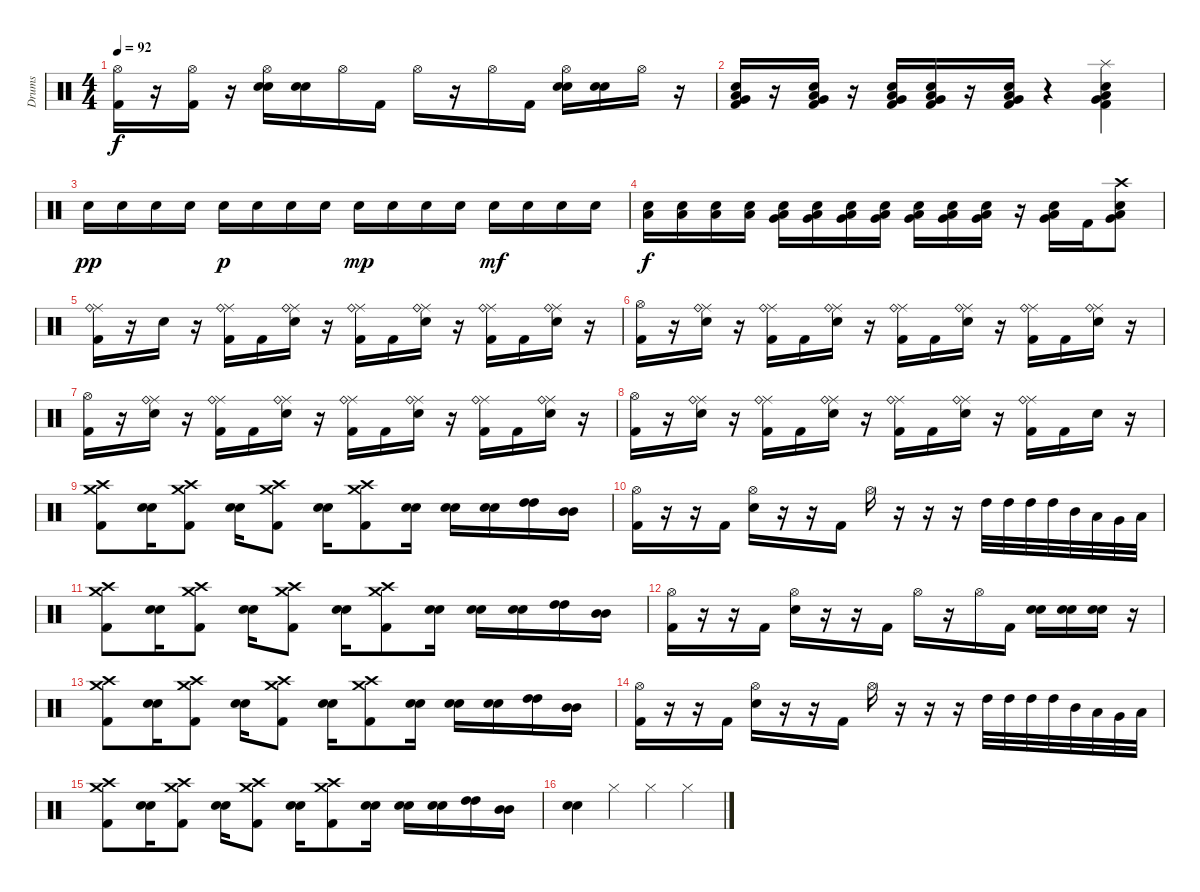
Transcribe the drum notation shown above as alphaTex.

\track ("Drums" "Drums") {instrument percussion}
\staff {score}
\articulation defaults
\ts (4 4)
\tempo 92
\clef neutral
\ks c
("Hi-Hat (open)" "Kick (hit) 2").16{dy f} r.16 ("Hi-Hat (open)" "Kick (hit) 2").16 r.16 ("Hi-Hat (open)" "Snare (hit) 2" "Electric Snare (hit)").16 ("Snare (hit) 2" "Electric Snare (hit)").16 "Hi-Hat (open)".16 "Kick (hit) 2".16 "Hi-Hat (open)".16 r.16 "Hi-Hat (open)".16 "Kick (hit) 2".16 ("Hi-Hat (open)" "Snare (hit) 2" "Electric Snare (hit)").16 ("Snare (hit) 2" "Electric Snare (hit)").16 "Hi-Hat (open)".16 r.16 |
("Very Low Tom (hit)" "Snare (hit) 2" "Low Tom (hit)" "Kick (hit) 2").16 r.16 ("Very Low Tom (hit)" "Snare (hit) 2" "Low Tom (hit)" "Kick (hit) 2").16 r.16 ("Very Low Tom (hit)" "Snare (hit) 2" "Low Tom (hit)" "Kick (hit) 2").16 ("Very Low Tom (hit)" "Snare (hit) 2" "Low Tom (hit)" "Kick (hit) 2").16 r.16 ("Very Low Tom (hit)" "Snare (hit) 2" "Low Tom (hit)" "Kick (hit) 2").16 r.4 ("Splash (hit)" "Very Low Tom (hit)" "Snare (hit) 2" "Low Tom (hit)" "Kick (hit) 2").4 |
"Snare (hit) 2".16{dy pp} "Snare (hit) 2".16 "Snare (hit) 2".16 "Snare (hit) 2".16 "Snare (hit) 2".16{dy p} "Snare (hit) 2".16 "Snare (hit) 2".16 "Snare (hit) 2".16 "Snare (hit) 2".16{dy mp} "Snare (hit) 2".16 "Snare (hit) 2".16 "Snare (hit) 2".16 "Snare (hit) 2".16{dy mf} "Snare (hit) 2".16 "Snare (hit) 2".16 "Snare (hit) 2".16 |
("Snare (hit) 2" "Low Tom (hit)").16{dy f} ("Snare (hit) 2" "Low Tom (hit)").16 ("Snare (hit) 2" "Low Tom (hit)").16 ("Snare (hit) 2" "Low Tom (hit)").16 ("Snare (hit) 2" "Very Low Tom (hit)" "Low Tom (hit)").16 ("Snare (hit) 2" "Very Low Tom (hit)" "Low Tom (hit)").16 ("Snare (hit) 2" "Very Low Tom (hit)" "Low Tom (hit)").16 ("Snare (hit) 2" "Very Low Tom (hit)" "Low Tom (hit)").16 ("Snare (hit) 2" "Very Low Tom (hit)" "Low Tom (hit)").16 ("Snare (hit) 2" "Very Low Tom (hit)" "Low Tom (hit)").16 ("Snare (hit) 2" "Very Low Tom (hit)" "Low Tom (hit)").16 r.16 ("Snare (hit) 2" "Very Low Tom (hit)" "Low Tom (hit)").16 "Kick (hit) 2".16 ("Crash high (hit)" "Snare (hit) 2" "Very Low Tom (hit)" "Low Tom (hit)").8 |
("Ride (middle)" "Ride (bell)" "Kick (hit) 2").16 r.16 "Electric Snare (hit)".16 r.16 ("Ride (middle)" "Ride (bell)" "Kick (hit) 2").16 "Kick (hit) 2".16 ("Ride (middle)" "Ride (bell)" "Electric Snare (hit)").16 r.16 ("Ride (middle)" "Ride (bell)" "Kick (hit) 2").16 "Kick (hit) 2".16 ("Ride (middle)" "Ride (bell)" "Electric Snare (hit)").16 r.16 ("Ride (middle)" "Ride (bell)" "Kick (hit) 2").16 "Kick (hit) 2".16 ("Ride (middle)" "Ride (bell)" "Electric Snare (hit)").16 r.16 |
("Hi-Hat (open)" "Kick (hit) 2").16 r.16 ("Ride (middle)" "Ride (bell)" "Electric Snare (hit)").16 r.16 ("Ride (middle)" "Ride (bell)" "Kick (hit) 2").16 "Kick (hit) 2".16 ("Ride (middle)" "Ride (bell)" "Electric Snare (hit)").16 r.16 ("Ride (middle)" "Ride (bell)" "Kick (hit) 2").16 "Kick (hit) 2".16 ("Ride (middle)" "Ride (bell)" "Electric Snare (hit)").16 r.16 ("Ride (middle)" "Ride (bell)" "Kick (hit) 2").16 "Kick (hit) 2".16 ("Ride (middle)" "Ride (bell)" "Electric Snare (hit)").16 r.16 |
("Hi-Hat (open)" "Kick (hit) 2").16 r.16 ("Ride (middle)" "Ride (bell)" "Electric Snare (hit)").16 r.16 ("Ride (middle)" "Ride (bell)" "Kick (hit) 2").16 "Kick (hit) 2".16 ("Ride (middle)" "Ride (bell)" "Electric Snare (hit)").16 r.16 ("Ride (middle)" "Ride (bell)" "Kick (hit) 2").16 "Kick (hit) 2".16 ("Ride (middle)" "Ride (bell)" "Electric Snare (hit)").16 r.16 ("Ride (middle)" "Ride (bell)" "Kick (hit) 2").16 "Kick (hit) 2".16 ("Ride (middle)" "Ride (bell)" "Electric Snare (hit)").16 r.16 |
("Hi-Hat (open)" "Kick (hit) 2").16 r.16 ("Ride (middle)" "Ride (bell)" "Electric Snare (hit)").16 r.16 ("Ride (middle)" "Ride (bell)" "Kick (hit) 2").16 "Kick (hit) 2".16 ("Ride (middle)" "Ride (bell)" "Electric Snare (hit)").16 r.16 ("Ride (middle)" "Ride (bell)" "Kick (hit) 2").16 "Kick (hit) 2".16 ("Ride (middle)" "Ride (bell)" "Electric Snare (hit)").16 r.16 ("Ride (middle)" "Ride (bell)" "Kick (hit) 2").16 "Kick (hit) 2".16 "Electric Snare (hit)".16 r.16 |
("Crash high (hit)" "Crash medium (hit)" "Kick (hit) 2").8 ("Snare (hit) 2" "Electric Snare (hit)").16 ("Crash medium (hit)" "Crash high (hit)" "Kick (hit) 2").8 ("Snare (hit) 2" "Electric Snare (hit)").16 ("Crash high (hit)" "Crash medium (hit)" "Kick (hit) 2").8 ("Snare (hit) 2" "Electric Snare (hit)").16 ("Crash medium (hit)" "Crash high (hit)" "Kick (hit) 2").8 ("Snare (hit) 2" "Electric Snare (hit)").16 ("Snare (hit) 2" "Electric Snare (hit)").16 ("Snare (hit) 2" "Electric Snare (hit)").16 ("High Tom (hit)" "High Tom (hit)").16 ("Mid Tom (hit)" "Mid Tom (hit)").16 |
("Hi-Hat (open)" "Kick (hit) 2").16 r.16 r.16 "Kick (hit) 2".16 ("Hi-Hat (open)" "Electric Snare (hit)").16 r.16 r.16 "Kick (hit) 2".16 "Hi-Hat (open)".16 r.16 r.16 r.16 "High Tom (hit)".32 "High Tom (hit)".32 "High Tom (hit)".32 "High Tom (hit)".32 "Mid Tom (hit)".32 "Low Tom (hit)".32 "Very Low Tom (hit)".32 "Low Floor Tom (hit)".32 |
("Crash high (hit)" "Crash medium (hit)" "Kick (hit) 2").8 ("Snare (hit) 2" "Electric Snare (hit)").16 ("Crash medium (hit)" "Crash high (hit)" "Kick (hit) 2").8 ("Snare (hit) 2" "Electric Snare (hit)").16 ("Crash high (hit)" "Crash medium (hit)" "Kick (hit) 2").8 ("Snare (hit) 2" "Electric Snare (hit)").16 ("Crash medium (hit)" "Crash high (hit)" "Kick (hit) 2").8 ("Snare (hit) 2" "Electric Snare (hit)").16 ("Snare (hit) 2" "Electric Snare (hit)").16 ("Snare (hit) 2" "Electric Snare (hit)").16 ("High Tom (hit)" "High Tom (hit)").16 ("Mid Tom (hit)" "Mid Tom (hit)").16 |
("Hi-Hat (open)" "Kick (hit) 2").16 r.16 r.16 "Kick (hit) 2".16 ("Hi-Hat (open)" "Electric Snare (hit)").16 r.16 r.16 "Kick (hit) 2".16 "Hi-Hat (open)".16 r.16 "Hi-Hat (open)".16 "Kick (hit) 2".16 ("Electric Snare (hit)" "Snare (hit) 2").16 ("Electric Snare (hit)" "Snare (hit) 2").16 ("Electric Snare (hit)" "Snare (hit) 2").16 r.16 |
("Crash high (hit)" "Crash medium (hit)" "Kick (hit) 2").8 ("Snare (hit) 2" "Electric Snare (hit)").16 ("Crash medium (hit)" "Crash high (hit)" "Kick (hit) 2").8 ("Snare (hit) 2" "Electric Snare (hit)").16 ("Crash high (hit)" "Crash medium (hit)" "Kick (hit) 2").8 ("Snare (hit) 2" "Electric Snare (hit)").16 ("Crash medium (hit)" "Crash high (hit)" "Kick (hit) 2").8 ("Snare (hit) 2" "Electric Snare (hit)").16 ("Snare (hit) 2" "Electric Snare (hit)").16 ("Snare (hit) 2" "Electric Snare (hit)").16 ("High Tom (hit)" "High Tom (hit)").16 ("Mid Tom (hit)" "Mid Tom (hit)").16 |
("Hi-Hat (open)" "Kick (hit) 2").16 r.16 r.16 "Kick (hit) 2".16 ("Hi-Hat (open)" "Electric Snare (hit)").16 r.16 r.16 "Kick (hit) 2".16 "Hi-Hat (open)".16 r.16 r.16 r.16 "High Tom (hit)".32 "High Tom (hit)".32 "High Tom (hit)".32 "High Tom (hit)".32 "Mid Tom (hit)".32 "Low Tom (hit)".32 "Very Low Tom (hit)".32 "Low Floor Tom (hit)".32 |
("Crash high (hit)" "Crash medium (hit)" "Kick (hit) 2").8 ("Snare (hit) 2" "Electric Snare (hit)").16 ("Crash medium (hit)" "Crash high (hit)" "Kick (hit) 2").8 ("Snare (hit) 2" "Electric Snare (hit)").16 ("Crash high (hit)" "Crash medium (hit)" "Kick (hit) 2").8 ("Snare (hit) 2" "Electric Snare (hit)").16 ("Crash medium (hit)" "Crash high (hit)" "Kick (hit) 2").8 ("Snare (hit) 2" "Electric Snare (hit)").16 ("Snare (hit) 2" "Electric Snare (hit)").16 ("Snare (hit) 2" "Electric Snare (hit)").16 ("High Tom (hit)" "High Tom (hit)").16 ("Mid Tom (hit)" "Mid Tom (hit)").16 |
("Electric Snare (hit)" "Snare (hit) 2").4 "Hi-Hat (closed)".4 "Hi-Hat (closed)".4 "Hi-Hat (closed)".4
